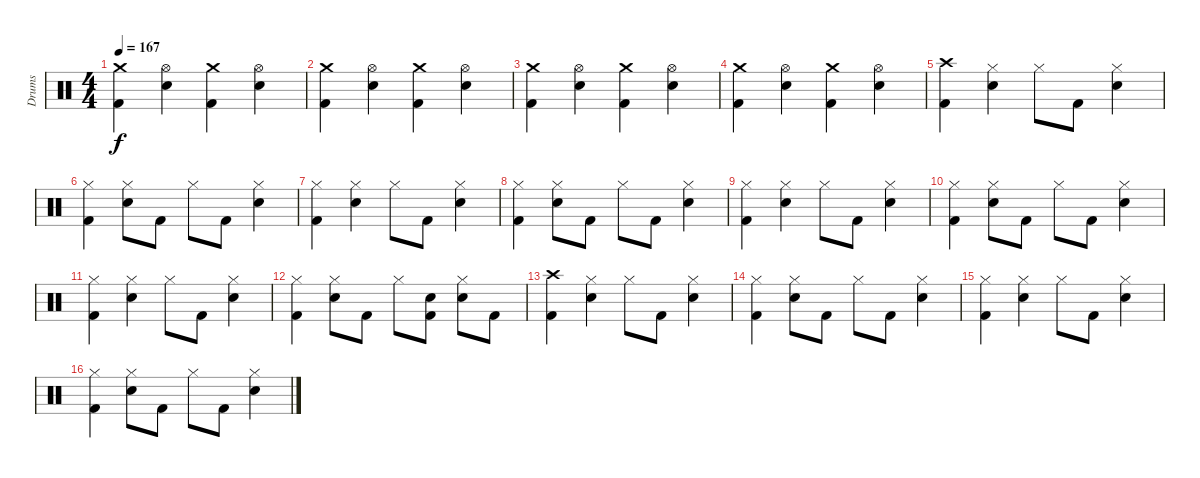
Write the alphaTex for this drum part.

\track ("Drums" "Drums") {instrument percussion}
\staff {score}
\articulation defaults
\ts (4 4)
\tempo 167
\clef neutral
\ks c
("Crash medium (hit)" "Kick (hit) 2").4{dy f} ("Hi-Hat (open)" "Snare (hit) 2").4 ("Kick (hit) 2" "Crash medium (hit)").4 ("Hi-Hat (open)" "Snare (hit) 2").4 |
("Crash medium (hit)" "Kick (hit) 2").4 ("Hi-Hat (open)" "Snare (hit) 2").4 ("Kick (hit) 2" "Crash medium (hit)").4 ("Hi-Hat (open)" "Snare (hit) 2").4 |
("Crash medium (hit)" "Kick (hit) 2").4 ("Hi-Hat (open)" "Snare (hit) 2").4 ("Kick (hit) 2" "Crash medium (hit)").4 ("Hi-Hat (open)" "Snare (hit) 2").4 |
("Crash medium (hit)" "Kick (hit) 2").4 ("Hi-Hat (open)" "Snare (hit) 2").4 ("Kick (hit) 2" "Crash medium (hit)").4 ("Hi-Hat (open)" "Snare (hit) 2").4 |
("Kick (hit) 2" "Crash high (hit)").4 ("Hi-Hat (closed)" "Snare (hit) 2").4 "Hi-Hat (closed)".8 "Kick (hit) 2".8 ("Hi-Hat (closed)" "Snare (hit) 2").4 |
("Hi-Hat (closed)" "Kick (hit) 2").4 ("Hi-Hat (closed)" "Snare (hit) 2").8 "Kick (hit) 2".8 "Hi-Hat (closed)".8 "Kick (hit) 2".8 ("Hi-Hat (closed)" "Snare (hit) 2").4 |
("Kick (hit) 2" "Hi-Hat (closed)").4 ("Hi-Hat (closed)" "Snare (hit) 2").4 "Hi-Hat (closed)".8 "Kick (hit) 2".8 ("Hi-Hat (closed)" "Snare (hit) 2").4 |
("Hi-Hat (closed)" "Kick (hit) 2").4 ("Hi-Hat (closed)" "Snare (hit) 2").8 "Kick (hit) 2".8 "Hi-Hat (closed)".8 "Kick (hit) 2".8 ("Hi-Hat (closed)" "Snare (hit) 2").4 |
("Kick (hit) 2" "Hi-Hat (closed)").4 ("Hi-Hat (closed)" "Snare (hit) 2").4 "Hi-Hat (closed)".8 "Kick (hit) 2".8 ("Hi-Hat (closed)" "Snare (hit) 2").4 |
("Hi-Hat (closed)" "Kick (hit) 2").4 ("Hi-Hat (closed)" "Snare (hit) 2").8 "Kick (hit) 2".8 "Hi-Hat (closed)".8 "Kick (hit) 2".8 ("Hi-Hat (closed)" "Snare (hit) 2").4 |
("Kick (hit) 2" "Hi-Hat (closed)").4 ("Hi-Hat (closed)" "Snare (hit) 2").4 "Hi-Hat (closed)".8 "Kick (hit) 2".8 ("Hi-Hat (closed)" "Snare (hit) 2").4 |
("Hi-Hat (closed)" "Kick (hit) 2").4 ("Hi-Hat (closed)" "Snare (hit) 2").8 "Kick (hit) 2".8 "Hi-Hat (closed)".8 ("Snare (hit) 2" "Kick (hit) 2").8 ("Hi-Hat (closed)" "Snare (hit) 2").8 "Kick (hit) 2".8 |
("Kick (hit) 2" "Crash high (hit)").4 ("Hi-Hat (closed)" "Snare (hit) 2").4 "Hi-Hat (closed)".8 "Kick (hit) 2".8 ("Hi-Hat (closed)" "Snare (hit) 2").4 |
("Hi-Hat (closed)" "Kick (hit) 2").4 ("Hi-Hat (closed)" "Snare (hit) 2").8 "Kick (hit) 2".8 "Hi-Hat (closed)".8 "Kick (hit) 2".8 ("Hi-Hat (closed)" "Snare (hit) 2").4 |
("Kick (hit) 2" "Hi-Hat (closed)").4 ("Hi-Hat (closed)" "Snare (hit) 2").4 "Hi-Hat (closed)".8 "Kick (hit) 2".8 ("Hi-Hat (closed)" "Snare (hit) 2").4 |
("Hi-Hat (closed)" "Kick (hit) 2").4 ("Hi-Hat (closed)" "Snare (hit) 2").8 "Kick (hit) 2".8 "Hi-Hat (closed)".8 "Kick (hit) 2".8 ("Hi-Hat (closed)" "Snare (hit) 2").4
